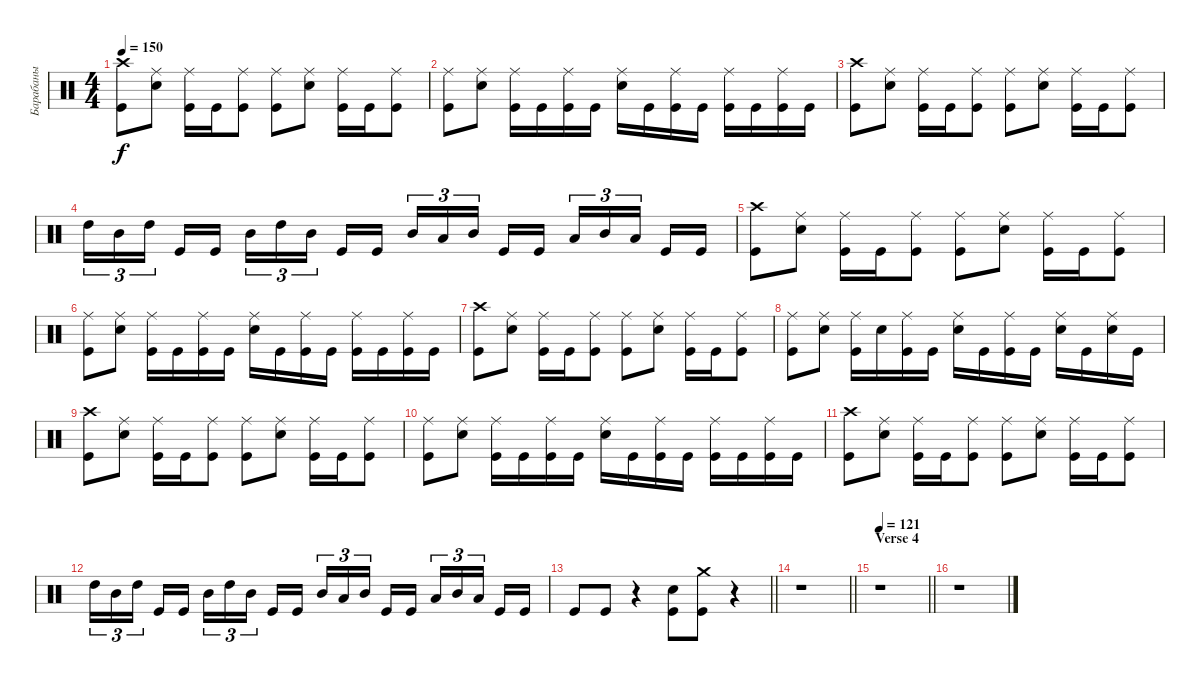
\track ("Барабаны" "Барабаны") {instrument percussion}
\staff {score}
\articulation defaults
\ts (4 4)
\tempo 150
\clef neutral
\ks c
("Crash high (hit)" "Kick (hit)").8{dy f} ("Ride (middle)" "Snare (hit) 2").8 ("Ride (middle)" "Kick (hit)").16 "Kick (hit)".16 ("Ride (middle)" "Kick (hit)").8 ("Ride (middle)" "Kick (hit)").8 ("Ride (middle)" "Snare (hit) 2").8 ("Ride (middle)" "Kick (hit)").16 "Kick (hit)".16 ("Ride (middle)" "Kick (hit)").8 |
("Ride (middle)" "Kick (hit)").8 ("Ride (middle)" "Snare (hit) 2").8 ("Ride (middle)" "Kick (hit)").16 "Kick (hit)".16 ("Ride (middle)" "Kick (hit)").16 "Kick (hit)".16 ("Ride (middle)" "Snare (hit) 2").16 "Kick (hit)".16 ("Ride (middle)" "Kick (hit)").16 "Kick (hit)".16 ("Ride (middle)" "Kick (hit)").16 "Kick (hit)".16 ("Ride (middle)" "Kick (hit)").16 "Kick (hit)".16 |
("Crash high (hit)" "Kick (hit)").8 ("Ride (middle)" "Snare (hit) 2").8 ("Ride (middle)" "Kick (hit)").16 "Kick (hit)".16 ("Ride (middle)" "Kick (hit)").8 ("Ride (middle)" "Kick (hit)").8 ("Ride (middle)" "Snare (hit) 2").8 ("Ride (middle)" "Kick (hit)").16 "Kick (hit)".16 ("Ride (middle)" "Kick (hit)").8 |
"High Tom (hit)".16{tu (3 2)} "Mid Tom (hit)".16{tu (3 2)} "High Tom (hit)".16{tu (3 2) beam splitsecondary} "Kick (hit)".16 "Kick (hit)".16 "Mid Tom (hit)".16{tu (3 2)} "High Tom (hit)".16{tu (3 2)} "Mid Tom (hit)".16{tu (3 2) beam splitsecondary} "Kick (hit)".16 "Kick (hit)".16 "Mid Tom (hit)".16{tu (3 2)} "Low Tom (hit)".16{tu (3 2)} "Mid Tom (hit)".16{tu (3 2) beam splitsecondary} "Kick (hit)".16 "Kick (hit)".16 "Low Tom (hit)".16{tu (3 2)} "Mid Tom (hit)".16{tu (3 2)} "Low Tom (hit)".16{tu (3 2) beam splitsecondary} "Kick (hit)".16 "Kick (hit)".16 |
("Crash high (hit)" "Kick (hit)").8 ("Ride (middle)" "Snare (hit) 2").8 ("Ride (middle)" "Kick (hit)").16 "Kick (hit)".16 ("Ride (middle)" "Kick (hit)").8 ("Ride (middle)" "Kick (hit)").8 ("Ride (middle)" "Snare (hit) 2").8 ("Ride (middle)" "Kick (hit)").16 "Kick (hit)".16 ("Ride (middle)" "Kick (hit)").8 |
("Ride (middle)" "Kick (hit)").8 ("Ride (middle)" "Snare (hit) 2").8 ("Ride (middle)" "Kick (hit)").16 "Kick (hit)".16 ("Ride (middle)" "Kick (hit)").16 "Kick (hit)".16 ("Ride (middle)" "Snare (hit) 2").16 "Kick (hit)".16 ("Ride (middle)" "Kick (hit)").16 "Kick (hit)".16 ("Ride (middle)" "Kick (hit)").16 "Kick (hit)".16 ("Ride (middle)" "Kick (hit)").16 "Kick (hit)".16 |
("Crash high (hit)" "Kick (hit)").8 ("Ride (middle)" "Snare (hit) 2").8 ("Ride (middle)" "Kick (hit)").16 "Kick (hit)".16 ("Ride (middle)" "Kick (hit)").8 ("Ride (middle)" "Kick (hit)").8 ("Ride (middle)" "Snare (hit) 2").8 ("Ride (middle)" "Kick (hit)").16 "Kick (hit)".16 ("Ride (middle)" "Kick (hit)").8 |
("Ride (middle)" "Kick (hit)").8 ("Ride (middle)" "Snare (hit) 2").8 ("Ride (middle)" "Kick (hit)").16 "Snare (hit) 2".16 ("Ride (middle)" "Kick (hit)").16 "Kick (hit)".16 ("Ride (middle)" "Snare (hit) 2").16 "Kick (hit)".16 ("Ride (middle)" "Kick (hit)").16 "Kick (hit)".16 ("Ride (middle)" "Snare (hit) 2").16 "Kick (hit)".16 ("Ride (middle)" "Snare (hit) 2").16 "Kick (hit)".16 |
("Crash high (hit)" "Kick (hit)").8 ("Ride (middle)" "Snare (hit) 2").8 ("Ride (middle)" "Kick (hit)").16 "Kick (hit)".16 ("Ride (middle)" "Kick (hit)").8 ("Ride (middle)" "Kick (hit)").8 ("Ride (middle)" "Snare (hit) 2").8 ("Ride (middle)" "Kick (hit)").16 "Kick (hit)".16 ("Ride (middle)" "Kick (hit)").8 |
("Ride (middle)" "Kick (hit)").8 ("Ride (middle)" "Snare (hit) 2").8 ("Ride (middle)" "Kick (hit)").16 "Kick (hit)".16 ("Ride (middle)" "Kick (hit)").16 "Kick (hit)".16 ("Ride (middle)" "Snare (hit) 2").16 "Kick (hit)".16 ("Ride (middle)" "Kick (hit)").16 "Kick (hit)".16 ("Ride (middle)" "Kick (hit)").16 "Kick (hit)".16 ("Ride (middle)" "Kick (hit)").16 "Kick (hit)".16 |
("Crash high (hit)" "Kick (hit)").8 ("Ride (middle)" "Snare (hit) 2").8 ("Ride (middle)" "Kick (hit)").16 "Kick (hit)".16 ("Ride (middle)" "Kick (hit)").8 ("Ride (middle)" "Kick (hit)").8 ("Ride (middle)" "Snare (hit) 2").8 ("Ride (middle)" "Kick (hit)").16 "Kick (hit)".16 ("Ride (middle)" "Kick (hit)").8 |
"High Tom (hit)".16{tu (3 2)} "Mid Tom (hit)".16{tu (3 2)} "High Tom (hit)".16{tu (3 2) beam splitsecondary} "Kick (hit)".16 "Kick (hit)".16 "Mid Tom (hit)".16{tu (3 2)} "High Tom (hit)".16{tu (3 2)} "Mid Tom (hit)".16{tu (3 2) beam splitsecondary} "Kick (hit)".16 "Kick (hit)".16 "Mid Tom (hit)".16{tu (3 2)} "Low Tom (hit)".16{tu (3 2)} "Mid Tom (hit)".16{tu (3 2) beam splitsecondary} "Kick (hit)".16 "Kick (hit)".16 "Low Tom (hit)".16{tu (3 2)} "Mid Tom (hit)".16{tu (3 2)} "Low Tom (hit)".16{tu (3 2) beam splitsecondary} "Kick (hit)".16 "Kick (hit)".16 |
\barLineRight lightlight "Kick (hit)".8 "Kick (hit)".8
r.4 ("Snare (hit) 2" "Kick (hit)").8 ("Crash medium (hit)" "Kick (hit)").8 r.4 |
\barLineRight lightlight
r.1 |
\section ("" "Verse 4")
\tempo 121
\barLineRight lightlight
r.1 |
r.1
